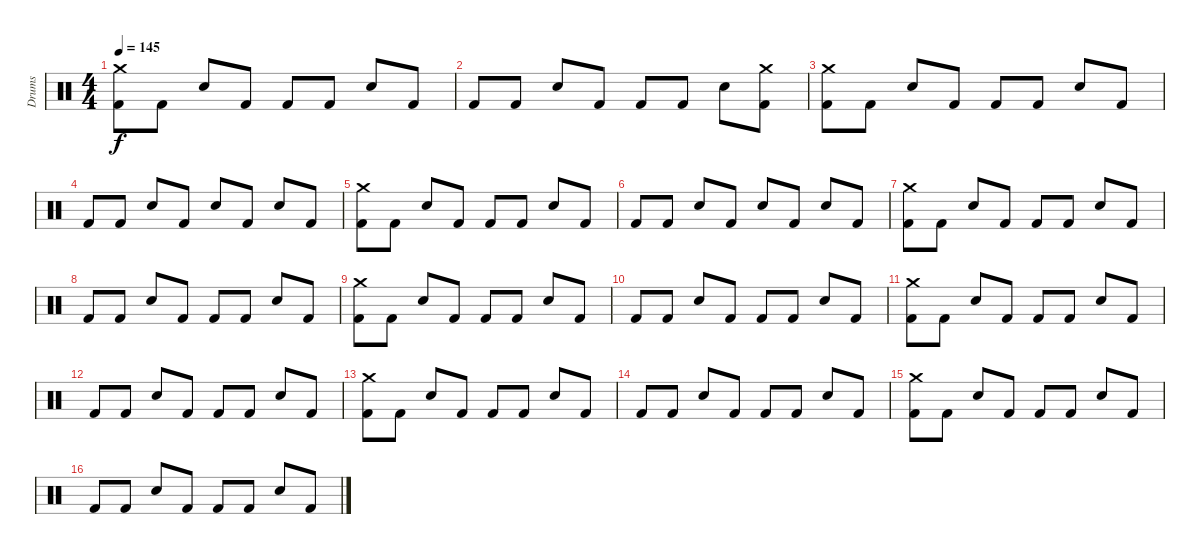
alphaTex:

\track ("Drums" "Drums") {instrument percussion}
\staff {score}
\articulation defaults
\ts (4 4)
\tempo 145
\clef neutral
\ks c
("Crash medium (hit)" "Kick (hit) 2").8{dy f} "Kick (hit) 2".8 "Snare (hit) 2".8 "Kick (hit) 2".8 "Kick (hit) 2".8 "Kick (hit) 2".8 "Snare (hit) 2".8 "Kick (hit) 2".8 |
"Kick (hit) 2".8 "Kick (hit) 2".8 "Snare (hit) 2".8 "Kick (hit) 2".8 "Kick (hit) 2".8 "Kick (hit) 2".8 "Snare (hit) 2".8 ("Crash medium (hit)" "Kick (hit) 2").8 |
("Crash medium (hit)" "Kick (hit) 2").8 "Kick (hit) 2".8 "Snare (hit) 2".8 "Kick (hit) 2".8 "Kick (hit) 2".8 "Kick (hit) 2".8 "Snare (hit) 2".8 "Kick (hit) 2".8 |
"Kick (hit) 2".8 "Kick (hit) 2".8 "Snare (hit) 2".8 "Kick (hit) 2".8 "Snare (hit) 2".8 "Kick (hit) 2".8 "Snare (hit) 2".8 "Kick (hit) 2".8 |
("Crash medium (hit)" "Kick (hit) 2").8 "Kick (hit) 2".8 "Snare (hit) 2".8 "Kick (hit) 2".8 "Kick (hit) 2".8 "Kick (hit) 2".8 "Snare (hit) 2".8 "Kick (hit) 2".8 |
"Kick (hit) 2".8 "Kick (hit) 2".8 "Snare (hit) 2".8 "Kick (hit) 2".8 "Snare (hit) 2".8 "Kick (hit) 2".8 "Snare (hit) 2".8 "Kick (hit) 2".8 |
("Crash medium (hit)" "Kick (hit) 2").8 "Kick (hit) 2".8 "Snare (hit) 2".8 "Kick (hit) 2".8 "Kick (hit) 2".8 "Kick (hit) 2".8 "Snare (hit) 2".8 "Kick (hit) 2".8 |
"Kick (hit) 2".8 "Kick (hit) 2".8 "Snare (hit) 2".8 "Kick (hit) 2".8 "Kick (hit) 2".8 "Kick (hit) 2".8 "Snare (hit) 2".8 "Kick (hit) 2".8 |
("Crash medium (hit)" "Kick (hit) 2").8 "Kick (hit) 2".8 "Snare (hit) 2".8 "Kick (hit) 2".8 "Kick (hit) 2".8 "Kick (hit) 2".8 "Snare (hit) 2".8 "Kick (hit) 2".8 |
"Kick (hit) 2".8 "Kick (hit) 2".8 "Snare (hit) 2".8 "Kick (hit) 2".8 "Kick (hit) 2".8 "Kick (hit) 2".8 "Snare (hit) 2".8 "Kick (hit) 2".8 |
("Crash medium (hit)" "Kick (hit) 2").8 "Kick (hit) 2".8 "Snare (hit) 2".8 "Kick (hit) 2".8 "Kick (hit) 2".8 "Kick (hit) 2".8 "Snare (hit) 2".8 "Kick (hit) 2".8 |
"Kick (hit) 2".8 "Kick (hit) 2".8 "Snare (hit) 2".8 "Kick (hit) 2".8 "Kick (hit) 2".8 "Kick (hit) 2".8 "Snare (hit) 2".8 "Kick (hit) 2".8 |
("Crash medium (hit)" "Kick (hit) 2").8 "Kick (hit) 2".8 "Snare (hit) 2".8 "Kick (hit) 2".8 "Kick (hit) 2".8 "Kick (hit) 2".8 "Snare (hit) 2".8 "Kick (hit) 2".8 |
"Kick (hit) 2".8 "Kick (hit) 2".8 "Snare (hit) 2".8 "Kick (hit) 2".8 "Kick (hit) 2".8 "Kick (hit) 2".8 "Snare (hit) 2".8 "Kick (hit) 2".8 |
("Crash medium (hit)" "Kick (hit) 2").8 "Kick (hit) 2".8 "Snare (hit) 2".8 "Kick (hit) 2".8 "Kick (hit) 2".8 "Kick (hit) 2".8 "Snare (hit) 2".8 "Kick (hit) 2".8 |
"Kick (hit) 2".8 "Kick (hit) 2".8 "Snare (hit) 2".8 "Kick (hit) 2".8 "Kick (hit) 2".8 "Kick (hit) 2".8 "Snare (hit) 2".8 "Kick (hit) 2".8
